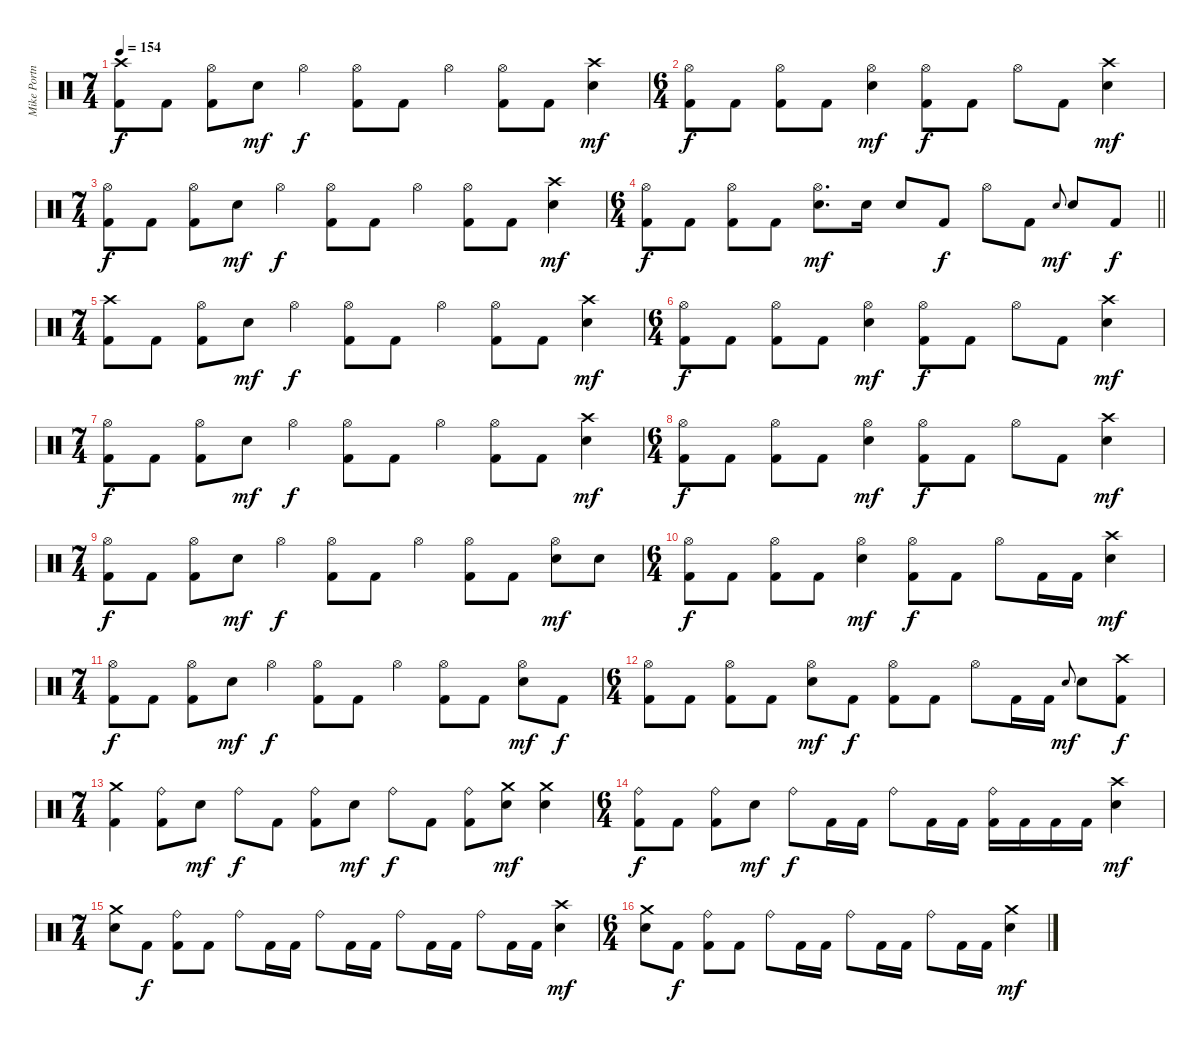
\track ("Mike Portnoy - Drum" "Mike Portn") {instrument percussion}
\staff {score}
\articulation defaults
\ts (7 4)
\tempo 154
\clef neutral
\ks c
("Crash high (hit)" "Kick (hit) 2").8{dy f} "Kick (hit) 2".8 ("Hi-Hat (open)" "Kick (hit) 2").8 "Electric Snare (hit)".8{dy mf} "Hi-Hat (open)".4{dy f} ("Hi-Hat (open)" "Kick (hit) 2").8 "Kick (hit) 2".8 "Hi-Hat (open)".4 ("Hi-Hat (open)" "Kick (hit) 2").8 "Kick (hit) 2".8 ("Crash high (hit)" "Electric Snare (hit)").4{dy mf} |
\ts (6 4)
("Hi-Hat (open)" "Kick (hit) 2").8{dy f} "Kick (hit) 2".8 ("Hi-Hat (open)" "Kick (hit) 2").8 "Kick (hit) 2".8 ("Hi-Hat (open)" "Electric Snare (hit)").4{dy mf} ("Hi-Hat (open)" "Kick (hit) 2").8{dy f} "Kick (hit) 2".8 "Hi-Hat (open)".8 "Kick (hit) 2".8 ("Crash high (hit)" "Electric Snare (hit)").4{dy mf} |
\ts (7 4)
("Hi-Hat (open)" "Kick (hit) 2").8{dy f} "Kick (hit) 2".8 ("Hi-Hat (open)" "Kick (hit) 2").8 "Electric Snare (hit)".8{dy mf} "Hi-Hat (open)".4{dy f} ("Hi-Hat (open)" "Kick (hit) 2").8 "Kick (hit) 2".8 "Hi-Hat (open)".4 ("Hi-Hat (open)" "Kick (hit) 2").8 "Kick (hit) 2".8 ("Crash high (hit)" "Electric Snare (hit)").4{dy mf} |
\ts (6 4)
\barLineRight lightlight
("Hi-Hat (open)" "Kick (hit) 2").8{dy f} "Kick (hit) 2".8 ("Hi-Hat (open)" "Kick (hit) 2").8 "Kick (hit) 2".8 ("Hi-Hat (open)" "Electric Snare (hit)").8{d dy mf} "Electric Snare (hit)".16 "Electric Snare (hit)".8 "Kick (hit) 2".8{dy f} "Hi-Hat (open)".8 "Kick (hit) 2".8 "Electric Snare (hit)".8{gr onbeat dy mf} "Electric Snare (hit)".8 "Kick (hit) 2".8{dy f} |
\ts (7 4)
("Crash high (hit)" "Kick (hit) 2").8 "Kick (hit) 2".8 ("Hi-Hat (open)" "Kick (hit) 2").8 "Electric Snare (hit)".8{dy mf} "Hi-Hat (open)".4{dy f} ("Hi-Hat (open)" "Kick (hit) 2").8 "Kick (hit) 2".8 "Hi-Hat (open)".4 ("Hi-Hat (open)" "Kick (hit) 2").8 "Kick (hit) 2".8 ("Crash high (hit)" "Electric Snare (hit)").4{dy mf} |
\ts (6 4)
("Hi-Hat (open)" "Kick (hit) 2").8{dy f} "Kick (hit) 2".8 ("Hi-Hat (open)" "Kick (hit) 2").8 "Kick (hit) 2".8 ("Hi-Hat (open)" "Electric Snare (hit)").4{dy mf} ("Hi-Hat (open)" "Kick (hit) 2").8{dy f} "Kick (hit) 2".8 "Hi-Hat (open)".8 "Kick (hit) 2".8 ("Crash high (hit)" "Electric Snare (hit)").4{dy mf} |
\ts (7 4)
("Hi-Hat (open)" "Kick (hit) 2").8{dy f} "Kick (hit) 2".8 ("Hi-Hat (open)" "Kick (hit) 2").8 "Electric Snare (hit)".8{dy mf} "Hi-Hat (open)".4{dy f} ("Hi-Hat (open)" "Kick (hit) 2").8 "Kick (hit) 2".8 "Hi-Hat (open)".4 ("Hi-Hat (open)" "Kick (hit) 2").8 "Kick (hit) 2".8 ("Crash high (hit)" "Electric Snare (hit)").4{dy mf} |
\ts (6 4)
("Hi-Hat (open)" "Kick (hit) 2").8{dy f} "Kick (hit) 2".8 ("Hi-Hat (open)" "Kick (hit) 2").8 "Kick (hit) 2".8 ("Hi-Hat (open)" "Electric Snare (hit)").4{dy mf} ("Hi-Hat (open)" "Kick (hit) 2").8{dy f} "Kick (hit) 2".8 "Hi-Hat (open)".8 "Kick (hit) 2".8 ("Crash high (hit)" "Electric Snare (hit)").4{dy mf} |
\ts (7 4)
("Hi-Hat (open)" "Kick (hit) 2").8{dy f} "Kick (hit) 2".8 ("Hi-Hat (open)" "Kick (hit) 2").8 "Electric Snare (hit)".8{dy mf} "Hi-Hat (open)".4{dy f} ("Hi-Hat (open)" "Kick (hit) 2").8 "Kick (hit) 2".8 "Hi-Hat (open)".4 ("Hi-Hat (open)" "Kick (hit) 2").8 "Kick (hit) 2".8 ("Hi-Hat (open)" "Electric Snare (hit)").8{dy mf} "Electric Snare (hit)".8 |
\ts (6 4)
("Hi-Hat (open)" "Kick (hit) 2").8{dy f} "Kick (hit) 2".8 ("Hi-Hat (open)" "Kick (hit) 2").8 "Kick (hit) 2".8 ("Hi-Hat (open)" "Electric Snare (hit)").4{dy mf} ("Hi-Hat (open)" "Kick (hit) 2").8{dy f} "Kick (hit) 2".8 "Hi-Hat (open)".8 "Kick (hit) 2".16 "Kick (hit) 2".16 ("Crash high (hit)" "Electric Snare (hit)").4{dy mf} |
\ts (7 4)
("Hi-Hat (open)" "Kick (hit) 2").8{dy f} "Kick (hit) 2".8 ("Hi-Hat (open)" "Kick (hit) 2").8 "Electric Snare (hit)".8{dy mf} "Hi-Hat (open)".4{dy f} ("Hi-Hat (open)" "Kick (hit) 2").8 "Kick (hit) 2".8 "Hi-Hat (open)".4 ("Hi-Hat (open)" "Kick (hit) 2").8 "Kick (hit) 2".8 ("Hi-Hat (open)" "Electric Snare (hit)").8{dy mf} "Kick (hit) 2".8{dy f} |
\ts (6 4)
("Hi-Hat (open)" "Kick (hit) 2").8 "Kick (hit) 2".8 ("Hi-Hat (open)" "Kick (hit) 2").8 "Kick (hit) 2".8 ("Hi-Hat (open)" "Electric Snare (hit)").8{dy mf} "Kick (hit) 2".8{dy f} ("Hi-Hat (open)" "Kick (hit) 2").8 "Kick (hit) 2".8 "Hi-Hat (open)".8 "Kick (hit) 2".16 "Kick (hit) 2".16 "Electric Snare (hit)".8{gr onbeat dy mf} "Electric Snare (hit)".8 ("Crash high (hit)" "Kick (hit) 2").8{dy f} |
\ts (7 4)
("Crash medium (hit)" "Kick (hit) 2").4 ("Ride (bell)" "Kick (hit) 2").8 "Electric Snare (hit)".8{dy mf} "Ride (bell)".8{dy f} "Kick (hit) 2".8 ("Ride (bell)" "Kick (hit) 2").8 "Electric Snare (hit)".8{dy mf} "Ride (bell)".8{dy f} "Kick (hit) 2".8 ("Ride (bell)" "Kick (hit) 2").8 ("Crash medium (hit)" "Electric Snare (hit)").8{dy mf} ("Crash medium (hit)" "Electric Snare (hit)").4 |
\ts (6 4)
("Ride (bell)" "Kick (hit) 2").8{dy f} "Kick (hit) 2".8 ("Ride (bell)" "Kick (hit) 2").8 "Electric Snare (hit)".8{dy mf} "Ride (bell)".8{dy f} "Kick (hit) 2".16 "Kick (hit) 2".16 "Ride (bell)".8 "Kick (hit) 2".16 "Kick (hit) 2".16 ("Ride (bell)" "Kick (hit) 2").16 "Kick (hit) 2".16 "Kick (hit) 2".16 "Kick (hit) 2".16 ("Crash high (hit)" "Electric Snare (hit)").4{dy mf} |
\ts (7 4)
("Crash medium (hit)" "Electric Snare (hit)").8 "Kick (hit) 2".8{dy f} ("Ride (bell)" "Kick (hit) 2").8 "Kick (hit) 2".8 "Ride (bell)".8 "Kick (hit) 2".16 "Kick (hit) 2".16 "Ride (bell)".8 "Kick (hit) 2".16 "Kick (hit) 2".16 "Ride (bell)".8 "Kick (hit) 2".16 "Kick (hit) 2".16 "Ride (bell)".8 "Kick (hit) 2".16 "Kick (hit) 2".16 ("Crash high (hit)" "Electric Snare (hit)").4{dy mf} |
\ts (6 4)
("Crash medium (hit)" "Electric Snare (hit)").8 "Kick (hit) 2".8{dy f} ("Ride (bell)" "Kick (hit) 2").8 "Kick (hit) 2".8 "Ride (bell)".8 "Kick (hit) 2".16 "Kick (hit) 2".16 "Ride (bell)".8 "Kick (hit) 2".16 "Kick (hit) 2".16 "Ride (bell)".8 "Kick (hit) 2".16 "Kick (hit) 2".16 ("Crash medium (hit)" "Electric Snare (hit)").4{dy mf}
